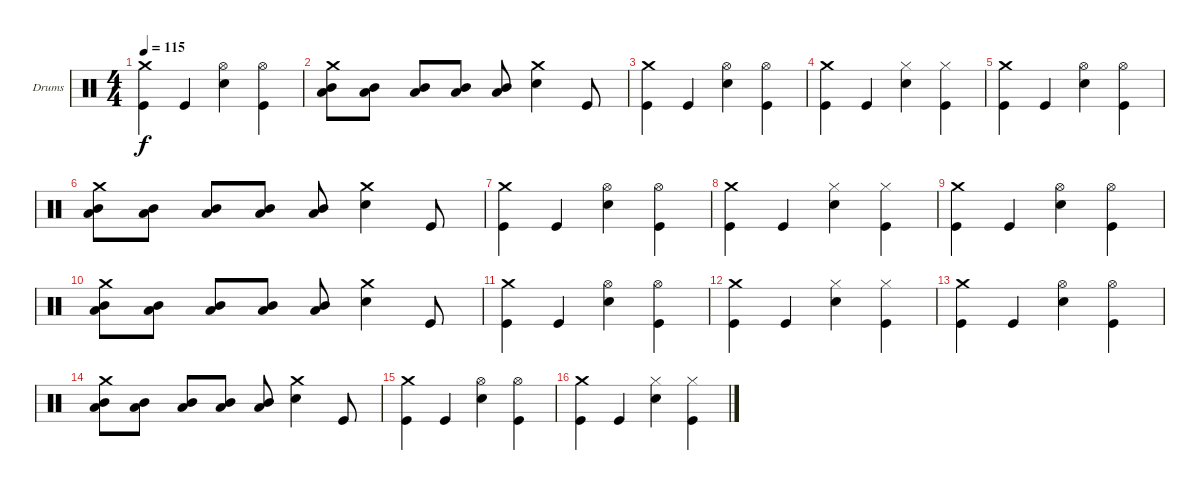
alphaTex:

\bracketExtendMode groupsimilarinstruments
\firstSystemTrackNameOrientation horizontal
\otherSystemsTrackNameOrientation horizontal
\track ("Drumkit" "Drums") {instrument percussion}
\staff {score}
\articulation defaults
\ts (4 4)
\tempo 115
\clef neutral
\ks aminor
("Crash medium (hit)" "Kick (hit)").4{dy f} "Kick (hit)".4 ("Hi-Hat (open)" "Snare (hit) 2").4 ("Hi-Hat (open)" "Kick (hit)").4 |
("Crash medium (hit)" "Low Tom (hit)" "Mid Tom (hit)").8 ("Low Tom (hit)" "Mid Tom (hit)").8 ("Low Tom (hit)" "Mid Tom (hit)").8 ("Low Tom (hit)" "Mid Tom (hit)").8 ("Low Tom (hit)" "Mid Tom (hit)").8 ("Crash medium (hit)" "Snare (hit) 2").4 "Kick (hit)".8 |
("Crash medium (hit)" "Kick (hit)").4 "Kick (hit)".4 ("Hi-Hat (open)" "Snare (hit) 2").4 ("Hi-Hat (open)" "Kick (hit)").4 |
("Crash medium (hit)" "Kick (hit)").4 "Kick (hit)".4 ("Hi-Hat (closed)" "Snare (hit) 2").4 ("Hi-Hat (closed)" "Kick (hit)").4 |
("Crash medium (hit)" "Kick (hit)").4 "Kick (hit)".4 ("Hi-Hat (open)" "Snare (hit) 2").4 ("Hi-Hat (open)" "Kick (hit)").4 |
("Crash medium (hit)" "Low Tom (hit)" "Mid Tom (hit)").8 ("Low Tom (hit)" "Mid Tom (hit)").8 ("Low Tom (hit)" "Mid Tom (hit)").8 ("Low Tom (hit)" "Mid Tom (hit)").8 ("Low Tom (hit)" "Mid Tom (hit)").8 ("Crash medium (hit)" "Snare (hit) 2").4 "Kick (hit)".8 |
("Crash medium (hit)" "Kick (hit)").4 "Kick (hit)".4 ("Hi-Hat (open)" "Snare (hit) 2").4 ("Hi-Hat (open)" "Kick (hit)").4 |
("Crash medium (hit)" "Kick (hit)").4 "Kick (hit)".4 ("Hi-Hat (closed)" "Snare (hit) 2").4 ("Hi-Hat (closed)" "Kick (hit)").4 |
("Crash medium (hit)" "Kick (hit)").4 "Kick (hit)".4 ("Hi-Hat (open)" "Snare (hit) 2").4 ("Hi-Hat (open)" "Kick (hit)").4 |
("Crash medium (hit)" "Low Tom (hit)" "Mid Tom (hit)").8 ("Low Tom (hit)" "Mid Tom (hit)").8 ("Low Tom (hit)" "Mid Tom (hit)").8 ("Low Tom (hit)" "Mid Tom (hit)").8 ("Low Tom (hit)" "Mid Tom (hit)").8 ("Crash medium (hit)" "Snare (hit) 2").4 "Kick (hit)".8 |
("Crash medium (hit)" "Kick (hit)").4 "Kick (hit)".4 ("Hi-Hat (open)" "Snare (hit) 2").4 ("Hi-Hat (open)" "Kick (hit)").4 |
("Crash medium (hit)" "Kick (hit)").4 "Kick (hit)".4 ("Hi-Hat (closed)" "Snare (hit) 2").4 ("Hi-Hat (closed)" "Kick (hit)").4 |
("Crash medium (hit)" "Kick (hit)").4 "Kick (hit)".4 ("Hi-Hat (open)" "Snare (hit) 2").4 ("Hi-Hat (open)" "Kick (hit)").4 |
("Crash medium (hit)" "Low Tom (hit)" "Mid Tom (hit)").8 ("Low Tom (hit)" "Mid Tom (hit)").8 ("Low Tom (hit)" "Mid Tom (hit)").8 ("Low Tom (hit)" "Mid Tom (hit)").8 ("Low Tom (hit)" "Mid Tom (hit)").8 ("Crash medium (hit)" "Snare (hit) 2").4 "Kick (hit)".8 |
("Crash medium (hit)" "Kick (hit)").4 "Kick (hit)".4 ("Hi-Hat (open)" "Snare (hit) 2").4 ("Hi-Hat (open)" "Kick (hit)").4 |
("Crash medium (hit)" "Kick (hit)").4 "Kick (hit)".4 ("Hi-Hat (closed)" "Snare (hit) 2").4 ("Hi-Hat (closed)" "Kick (hit)").4
